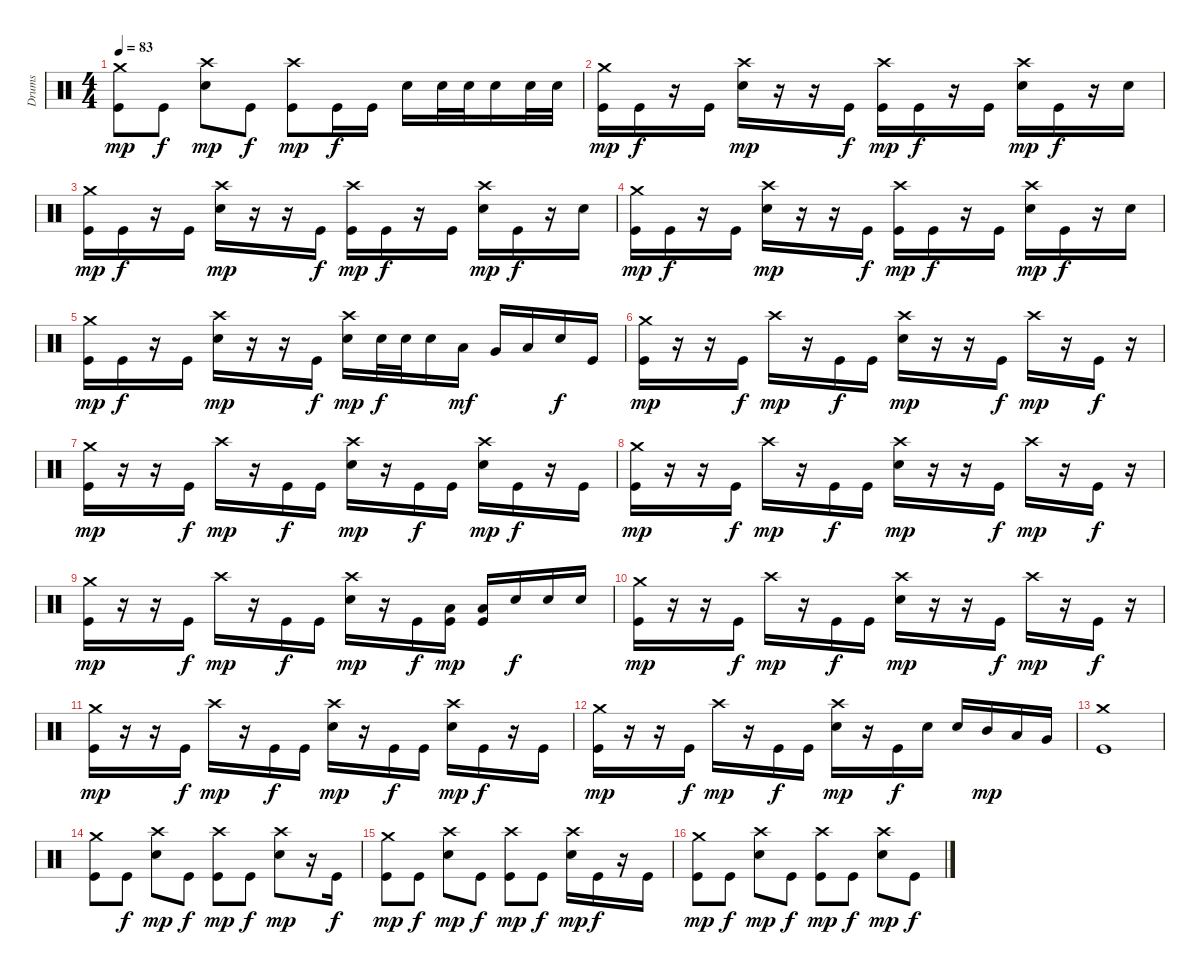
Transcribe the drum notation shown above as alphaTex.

\track ("Drums" "Drums") {instrument percussion}
\staff {score}
\articulation defaults
\ts (4 4)
\tempo 83
\clef neutral
\ks c
("Kick (hit)" "Crash medium (hit)").8{dy mp} "Kick (hit)".8{dy f} ("Snare (hit) 2" "Crash high (hit)").8{dy mp} "Kick (hit)".8{dy f} ("Kick (hit)" "Crash high (hit)").8{dy mp} "Kick (hit)".16{dy f} "Kick (hit)".16 "Snare (hit) 2".16 "Snare (hit) 2".32 "Snare (hit) 2".32 "Snare (hit) 2".16 "Snare (hit) 2".32 "Snare (hit) 2".32 |
("Kick (hit)" "Crash medium (hit)").16{dy mp} "Kick (hit)".16{dy f} r.16 "Kick (hit)".16 ("Snare (hit) 2" "Crash high (hit)").16{dy mp} r.16 r.16 "Kick (hit)".16{dy f} ("Kick (hit)" "Crash high (hit)").16{dy mp} "Kick (hit)".16{dy f} r.16 "Kick (hit)".16 ("Snare (hit) 2" "Crash high (hit)").16{dy mp} "Kick (hit)".16{dy f} r.16 "Snare (hit) 2".16 |
("Kick (hit)" "Crash medium (hit)").16{dy mp} "Kick (hit)".16{dy f} r.16 "Kick (hit)".16 ("Snare (hit) 2" "Crash high (hit)").16{dy mp} r.16 r.16 "Kick (hit)".16{dy f} ("Kick (hit)" "Crash high (hit)").16{dy mp} "Kick (hit)".16{dy f} r.16 "Kick (hit)".16 ("Snare (hit) 2" "Crash high (hit)").16{dy mp} "Kick (hit)".16{dy f} r.16 "Snare (hit) 2".16 |
("Kick (hit)" "Crash medium (hit)").16{dy mp} "Kick (hit)".16{dy f} r.16 "Kick (hit)".16 ("Snare (hit) 2" "Crash high (hit)").16{dy mp} r.16 r.16 "Kick (hit)".16{dy f} ("Kick (hit)" "Crash high (hit)").16{dy mp} "Kick (hit)".16{dy f} r.16 "Kick (hit)".16 ("Snare (hit) 2" "Crash high (hit)").16{dy mp} "Kick (hit)".16{dy f} r.16 "Snare (hit) 2".16 |
("Kick (hit)" "Crash medium (hit)").16{dy mp} "Kick (hit)".16{dy f} r.16 "Kick (hit)".16 ("Snare (hit) 2" "Crash high (hit)").16{dy mp} r.16 r.16 "Kick (hit)".16{dy f} ("Snare (hit) 2" "Crash high (hit)").16{dy mp} "Snare (hit) 2".32{dy f} "Snare (hit) 2".32 "Snare (hit) 2".16 "Low Tom (hit)".16{dy mf} "Very Low Tom (hit)".16 "Low Floor Tom (hit)".16 "Snare (hit) 2".16{dy f} "Kick (hit)".16 |
("Kick (hit)" "Crash medium (hit)").16{dy mp} r.16 r.16 "Kick (hit)".16{dy f} "Crash high (hit)".16{dy mp} r.16 "Kick (hit)".16{dy f} "Kick (hit)".16 ("Snare (hit) 2" "Crash high (hit)").16{dy mp} r.16 r.16 "Kick (hit)".16{dy f} "Crash high (hit)".16{dy mp} r.16 "Kick (hit)".16{dy f} r.16 |
("Kick (hit)" "Crash medium (hit)").16{dy mp} r.16 r.16 "Kick (hit)".16{dy f} "Crash high (hit)".16{dy mp} r.16 "Kick (hit)".16{dy f} "Kick (hit)".16 ("Snare (hit) 2" "Crash high (hit)").16{dy mp} r.16 "Kick (hit)".16{dy f} "Kick (hit)".16 ("Snare (hit) 2" "Crash high (hit)").16{dy mp} "Kick (hit)".16{dy f} r.16 "Kick (hit)".16 |
("Kick (hit)" "Crash medium (hit)").16{dy mp} r.16 r.16 "Kick (hit)".16{dy f} "Crash high (hit)".16{dy mp} r.16 "Kick (hit)".16{dy f} "Kick (hit)".16 ("Snare (hit) 2" "Crash high (hit)").16{dy mp} r.16 r.16 "Kick (hit)".16{dy f} "Crash high (hit)".16{dy mp} r.16 "Kick (hit)".16{dy f} r.16 |
("Kick (hit)" "Crash medium (hit)").16{dy mp} r.16 r.16 "Kick (hit)".16{dy f} "Crash high (hit)".16{dy mp} r.16 "Kick (hit)".16{dy f} "Kick (hit)".16 ("Snare (hit) 2" "Crash high (hit)").16{dy mp} r.16 "Kick (hit)".16{dy f} ("Kick (hit)" "Low Tom (hit)").16{dy mp} ("Kick (hit)" "Low Floor Tom (hit)").16 "Snare (hit) 2".16{dy f} "Snare (hit) 2".16 "Snare (hit) 2".16 |
("Kick (hit)" "Crash medium (hit)").16{dy mp} r.16 r.16 "Kick (hit)".16{dy f} "Crash high (hit)".16{dy mp} r.16 "Kick (hit)".16{dy f} "Kick (hit)".16 ("Snare (hit) 2" "Crash high (hit)").16{dy mp} r.16 r.16 "Kick (hit)".16{dy f} "Crash high (hit)".16{dy mp} r.16 "Kick (hit)".16{dy f} r.16 |
("Kick (hit)" "Crash medium (hit)").16{dy mp} r.16 r.16 "Kick (hit)".16{dy f} "Crash high (hit)".16{dy mp} r.16 "Kick (hit)".16{dy f} "Kick (hit)".16 ("Snare (hit) 2" "Crash high (hit)").16{dy mp} r.16 "Kick (hit)".16{dy f} "Kick (hit)".16 ("Snare (hit) 2" "Crash high (hit)").16{dy mp} "Kick (hit)".16{dy f} r.16 "Kick (hit)".16 |
("Kick (hit)" "Crash medium (hit)").16{dy mp} r.16 r.16 "Kick (hit)".16{dy f} "Crash high (hit)".16{dy mp} r.16 "Kick (hit)".16{dy f} "Kick (hit)".16 ("Snare (hit) 2" "Crash high (hit)").16{dy mp} r.16 "Kick (hit)".16{dy f} "Snare (hit) 2".16 "Snare (hit) 2".16 "Mid Tom (hit)".16{dy mp} "Low Tom (hit)".16 "Very Low Tom (hit)".16 |
("Kick (hit)" "Crash medium (hit)").1 |
("Kick (hit)" "Crash medium (hit)").8 "Kick (hit)".8{dy f} ("Snare (hit) 2" "Crash high (hit)").8{dy mp} "Kick (hit)".8{dy f} ("Kick (hit)" "Crash high (hit)").8{dy mp} "Kick (hit)".8{dy f} ("Snare (hit) 2" "Crash high (hit)").8{dy mp} r.16 "Kick (hit)".16{dy f} |
("Kick (hit)" "Crash medium (hit)").8{dy mp} "Kick (hit)".8{dy f} ("Snare (hit) 2" "Crash high (hit)").8{dy mp} "Kick (hit)".8{dy f} ("Kick (hit)" "Crash high (hit)").8{dy mp} "Kick (hit)".8{dy f} ("Snare (hit) 2" "Crash high (hit)").16{dy mp} "Kick (hit)".16{dy f} r.16 "Kick (hit)".16 |
("Kick (hit)" "Crash medium (hit)").8{dy mp} "Kick (hit)".8{dy f} ("Snare (hit) 2" "Crash high (hit)").8{dy mp} "Kick (hit)".8{dy f} ("Kick (hit)" "Crash high (hit)").8{dy mp} "Kick (hit)".8{dy f} ("Snare (hit) 2" "Crash high (hit)").8{dy mp} "Kick (hit)".8{dy f}
